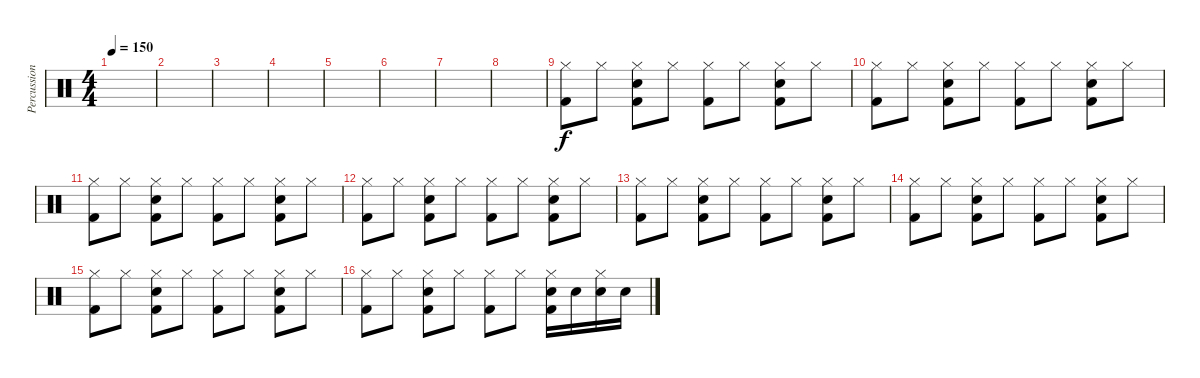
\track ("Percussion" "Percussion") {instrument percussion}
\staff {score}
\articulation defaults
\ts (4 4)
\tempo 150
\clef neutral
\ks c
|
|
|
|
|
|
|
|
("Hi-Hat (closed)" "Kick (hit) 2").8 "Hi-Hat (closed)".8 ("Hi-Hat (closed)" "Snare (hit) 2" "Kick (hit) 2").8 "Hi-Hat (closed)".8 ("Hi-Hat (closed)" "Kick (hit) 2").8 "Hi-Hat (closed)".8 ("Hi-Hat (closed)" "Snare (hit) 2" "Kick (hit) 2").8 "Hi-Hat (closed)".8 |
("Hi-Hat (closed)" "Kick (hit) 2").8 "Hi-Hat (closed)".8 ("Hi-Hat (closed)" "Snare (hit) 2" "Kick (hit) 2").8 "Hi-Hat (closed)".8 ("Hi-Hat (closed)" "Kick (hit) 2").8 "Hi-Hat (closed)".8 ("Hi-Hat (closed)" "Snare (hit) 2" "Kick (hit) 2").8 "Hi-Hat (closed)".8 |
("Hi-Hat (closed)" "Kick (hit) 2").8 "Hi-Hat (closed)".8 ("Hi-Hat (closed)" "Snare (hit) 2" "Kick (hit) 2").8 "Hi-Hat (closed)".8 ("Hi-Hat (closed)" "Kick (hit) 2").8 "Hi-Hat (closed)".8 ("Hi-Hat (closed)" "Snare (hit) 2" "Kick (hit) 2").8 "Hi-Hat (closed)".8 |
("Hi-Hat (closed)" "Kick (hit) 2").8 "Hi-Hat (closed)".8 ("Hi-Hat (closed)" "Snare (hit) 2" "Kick (hit) 2").8 "Hi-Hat (closed)".8 ("Hi-Hat (closed)" "Kick (hit) 2").8 "Hi-Hat (closed)".8 ("Hi-Hat (closed)" "Snare (hit) 2" "Kick (hit) 2").8 "Hi-Hat (closed)".8 |
("Hi-Hat (closed)" "Kick (hit) 2").8 "Hi-Hat (closed)".8 ("Hi-Hat (closed)" "Snare (hit) 2" "Kick (hit) 2").8 "Hi-Hat (closed)".8 ("Hi-Hat (closed)" "Kick (hit) 2").8 "Hi-Hat (closed)".8 ("Hi-Hat (closed)" "Snare (hit) 2" "Kick (hit) 2").8 "Hi-Hat (closed)".8 |
("Hi-Hat (closed)" "Kick (hit) 2").8 "Hi-Hat (closed)".8 ("Hi-Hat (closed)" "Snare (hit) 2" "Kick (hit) 2").8 "Hi-Hat (closed)".8 ("Hi-Hat (closed)" "Kick (hit) 2").8 "Hi-Hat (closed)".8 ("Hi-Hat (closed)" "Snare (hit) 2" "Kick (hit) 2").8 "Hi-Hat (closed)".8 |
("Hi-Hat (closed)" "Kick (hit) 2").8 "Hi-Hat (closed)".8 ("Hi-Hat (closed)" "Snare (hit) 2" "Kick (hit) 2").8 "Hi-Hat (closed)".8 ("Hi-Hat (closed)" "Kick (hit) 2").8 "Hi-Hat (closed)".8 ("Hi-Hat (closed)" "Snare (hit) 2" "Kick (hit) 2").8 "Hi-Hat (closed)".8 |
("Hi-Hat (closed)" "Kick (hit) 2").8 "Hi-Hat (closed)".8 ("Hi-Hat (closed)" "Snare (hit) 2" "Kick (hit) 2").8 "Hi-Hat (closed)".8 ("Hi-Hat (closed)" "Kick (hit) 2").8 "Hi-Hat (closed)".8 ("Hi-Hat (closed)" "Snare (hit) 2" "Kick (hit) 2").16 "Snare (hit) 2".16 ("Hi-Hat (closed)" "Snare (hit) 2").16 "Snare (hit) 2".16
